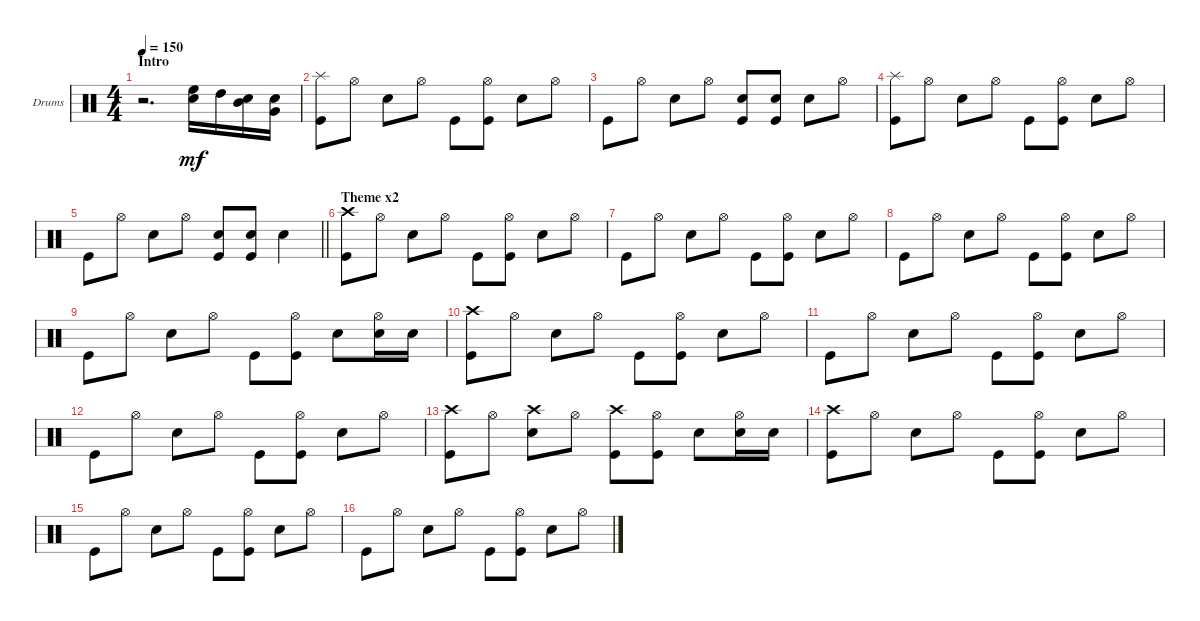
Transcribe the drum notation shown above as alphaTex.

\bracketExtendMode groupsimilarinstruments
\firstSystemTrackNameOrientation horizontal
\otherSystemsTrackNameOrientation horizontal
\track ("Percussion" "Drums") {instrument percussion}
\staff {score}
\articulation defaults
\ts (4 4)
\section ("" "Intro")
\tempo 150
\clef neutral
\ks c
r.2{d dy mf} ("Snare (hit) 2" "High Floor Tom (hit)").16 "High Tom (hit)".16 ("Snare (hit) 2" "Mid Tom (hit)").16 ("Snare (hit) 2" "Very Low Tom (hit)").16 |
("Splash (hit)" "Kick (hit)").8 "Hi-Hat (open)".8 "Snare (hit) 2".8 "Hi-Hat (open)".8 "Kick (hit)".8 ("Hi-Hat (open)" "Kick (hit)").8 "Snare (hit) 2".8 "Hi-Hat (open)".8 |
"Kick (hit)".8 "Hi-Hat (open)".8 "Snare (hit) 2".8 "Hi-Hat (open)".8 ("Snare (hit) 2" "Kick (hit)").8 ("Snare (hit) 2" "Kick (hit)").8 "Snare (hit) 2".8 "Hi-Hat (open)".8 |
("Splash (hit)" "Kick (hit)").8 "Hi-Hat (open)".8 "Snare (hit) 2".8 "Hi-Hat (open)".8 "Kick (hit)".8 ("Hi-Hat (open)" "Kick (hit)").8 "Snare (hit) 2".8 "Hi-Hat (open)".8 |
\barLineRight lightlight "Kick (hit)".8 "Hi-Hat (open)".8 "Snare (hit) 2".8 "Hi-Hat (open)".8
("Snare (hit) 2" "Kick (hit)").8 ("Snare (hit) 2" "Kick (hit)").8 "Snare (hit) 2".4 |
\section ("" "Theme x2")
("Crash high (hit)" "Kick (hit)").8 "Hi-Hat (open)".8 "Snare (hit) 2".8 "Hi-Hat (open)".8 "Kick (hit)".8 ("Hi-Hat (open)" "Kick (hit)").8 "Snare (hit) 2".8 "Hi-Hat (open)".8 |
"Kick (hit)".8 "Hi-Hat (open)".8 "Snare (hit) 2".8 "Hi-Hat (open)".8 "Kick (hit)".8 ("Hi-Hat (open)" "Kick (hit)").8 "Snare (hit) 2".8 "Hi-Hat (open)".8 |
"Kick (hit)".8 "Hi-Hat (open)".8 "Snare (hit) 2".8 "Hi-Hat (open)".8 "Kick (hit)".8 ("Hi-Hat (open)" "Kick (hit)").8 "Snare (hit) 2".8 "Hi-Hat (open)".8 |
"Kick (hit)".8 "Hi-Hat (open)".8 "Snare (hit) 2".8 "Hi-Hat (open)".8 "Kick (hit)".8 ("Hi-Hat (open)" "Kick (hit)").8 "Snare (hit) 2".8 ("Snare (hit) 2" "Hi-Hat (open)").16 "Snare (hit) 2".16 |
("Crash high (hit)" "Kick (hit)").8 "Hi-Hat (open)".8 "Snare (hit) 2".8 "Hi-Hat (open)".8 "Kick (hit)".8 ("Hi-Hat (open)" "Kick (hit)").8 "Snare (hit) 2".8 "Hi-Hat (open)".8 |
"Kick (hit)".8 "Hi-Hat (open)".8 "Snare (hit) 2".8 "Hi-Hat (open)".8 "Kick (hit)".8 ("Hi-Hat (open)" "Kick (hit)").8 "Snare (hit) 2".8 "Hi-Hat (open)".8 |
"Kick (hit)".8 "Hi-Hat (open)".8 "Snare (hit) 2".8 "Hi-Hat (open)".8 "Kick (hit)".8 ("Hi-Hat (open)" "Kick (hit)").8 "Snare (hit) 2".8 "Hi-Hat (open)".8 |
("Crash high (hit)" "Kick (hit)").8 "Hi-Hat (open)".8 ("Crash high (hit)" "Snare (hit) 2").8 "Hi-Hat (open)".8 ("Crash high (hit)" "Kick (hit)").8 ("Hi-Hat (open)" "Kick (hit)").8 "Snare (hit) 2".8 ("Snare (hit) 2" "Hi-Hat (open)").16 "Snare (hit) 2".16 |
("Crash high (hit)" "Kick (hit)").8 "Hi-Hat (open)".8 "Snare (hit) 2".8 "Hi-Hat (open)".8 "Kick (hit)".8 ("Hi-Hat (open)" "Kick (hit)").8 "Snare (hit) 2".8 "Hi-Hat (open)".8 |
"Kick (hit)".8 "Hi-Hat (open)".8 "Snare (hit) 2".8 "Hi-Hat (open)".8 "Kick (hit)".8 ("Hi-Hat (open)" "Kick (hit)").8 "Snare (hit) 2".8 "Hi-Hat (open)".8 |
"Kick (hit)".8 "Hi-Hat (open)".8 "Snare (hit) 2".8 "Hi-Hat (open)".8 "Kick (hit)".8 ("Hi-Hat (open)" "Kick (hit)").8 "Snare (hit) 2".8 "Hi-Hat (open)".8
